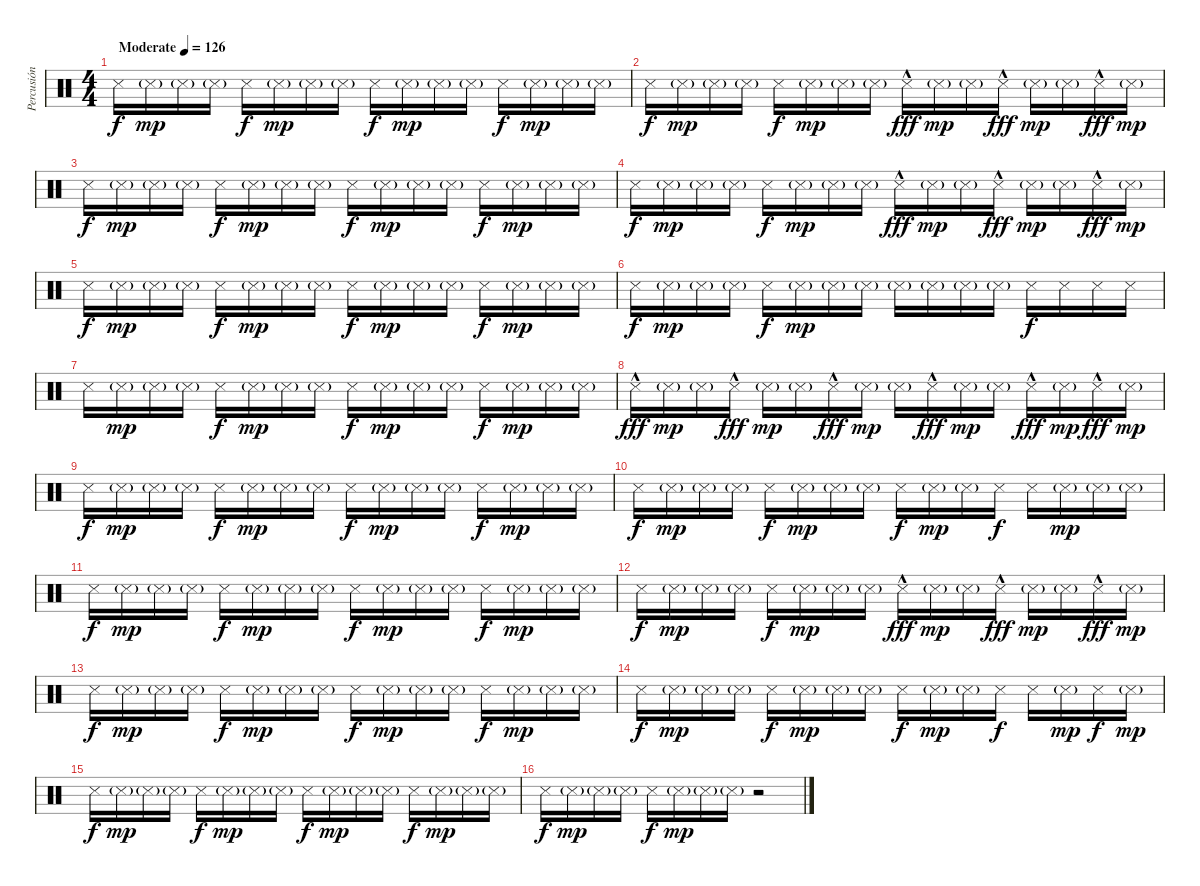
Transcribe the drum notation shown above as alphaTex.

\track ("Percusión" "Percusión") {instrument percussion}
\staff {score}
\articulation defaults
\ts (4 4)
\tempo (126 "Moderate")
\clef neutral
\ks c "Snare (side stick) 3".16{dy f} "Snare (side stick) 3"{g}.16{dy mp} "Snare (side stick) 3"{g}.16 "Snare (side stick) 3"{g}.16 "Snare (side stick) 3".16{dy f} "Snare (side stick) 3"{g}.16{dy mp} "Snare (side stick) 3"{g}.16 "Snare (side stick) 3"{g}.16 "Snare (side stick) 3".16{dy f} "Snare (side stick) 3"{g}.16{dy mp} "Snare (side stick) 3"{g}.16 "Snare (side stick) 3"{g}.16 "Snare (side stick) 3".16{dy f} "Snare (side stick) 3"{g}.16{dy mp} "Snare (side stick) 3"{g}.16 "Snare (side stick) 3"{g}.16
|
"Snare (side stick) 3".16{dy f} "Snare (side stick) 3"{g}.16{dy mp} "Snare (side stick) 3"{g}.16 "Snare (side stick) 3"{g}.16 "Snare (side stick) 3".16{dy f} "Snare (side stick) 3"{g}.16{dy mp} "Snare (side stick) 3"{g}.16 "Snare (side stick) 3"{g}.16 "Snare (side stick) 3"{hac}.16{dy fff} "Snare (side stick) 3"{g}.16{dy mp} "Snare (side stick) 3"{g}.16 "Snare (side stick) 3"{hac}.16{dy fff} "Snare (side stick) 3"{g}.16{dy mp} "Snare (side stick) 3"{g}.16 "Snare (side stick) 3"{hac}.16{dy fff} "Snare (side stick) 3"{g}.16{dy mp} |
"Snare (side stick) 3".16{dy f} "Snare (side stick) 3"{g}.16{dy mp} "Snare (side stick) 3"{g}.16 "Snare (side stick) 3"{g}.16 "Snare (side stick) 3".16{dy f} "Snare (side stick) 3"{g}.16{dy mp} "Snare (side stick) 3"{g}.16 "Snare (side stick) 3"{g}.16 "Snare (side stick) 3".16{dy f} "Snare (side stick) 3"{g}.16{dy mp} "Snare (side stick) 3"{g}.16 "Snare (side stick) 3"{g}.16 "Snare (side stick) 3".16{dy f} "Snare (side stick) 3"{g}.16{dy mp} "Snare (side stick) 3"{g}.16 "Snare (side stick) 3"{g}.16 |
"Snare (side stick) 3".16{dy f} "Snare (side stick) 3"{g}.16{dy mp} "Snare (side stick) 3"{g}.16 "Snare (side stick) 3"{g}.16 "Snare (side stick) 3".16{dy f} "Snare (side stick) 3"{g}.16{dy mp} "Snare (side stick) 3"{g}.16 "Snare (side stick) 3"{g}.16 "Snare (side stick) 3"{hac}.16{dy fff} "Snare (side stick) 3"{g}.16{dy mp} "Snare (side stick) 3"{g}.16 "Snare (side stick) 3"{hac}.16{dy fff} "Snare (side stick) 3"{g}.16{dy mp} "Snare (side stick) 3"{g}.16 "Snare (side stick) 3"{hac}.16{dy fff} "Snare (side stick) 3"{g}.16{dy mp} |
"Snare (side stick) 3".16{dy f} "Snare (side stick) 3"{g}.16{dy mp} "Snare (side stick) 3"{g}.16 "Snare (side stick) 3"{g}.16 "Snare (side stick) 3".16{dy f} "Snare (side stick) 3"{g}.16{dy mp} "Snare (side stick) 3"{g}.16 "Snare (side stick) 3"{g}.16 "Snare (side stick) 3".16{dy f} "Snare (side stick) 3"{g}.16{dy mp} "Snare (side stick) 3"{g}.16 "Snare (side stick) 3"{g}.16 "Snare (side stick) 3".16{dy f} "Snare (side stick) 3"{g}.16{dy mp} "Snare (side stick) 3"{g}.16 "Snare (side stick) 3"{g}.16 |
"Snare (side stick) 3".16{dy f} "Snare (side stick) 3"{g}.16{dy mp} "Snare (side stick) 3"{g}.16 "Snare (side stick) 3"{g}.16 "Snare (side stick) 3".16{dy f} "Snare (side stick) 3"{g}.16{dy mp} "Snare (side stick) 3"{g}.16 "Snare (side stick) 3"{g}.16 "Snare (side stick) 3"{g}.16 "Snare (side stick) 3"{g}.16 "Snare (side stick) 3"{g}.16 "Snare (side stick) 3"{g}.16 "Snare (side stick) 3".16{dy f} "Snare (side stick) 3".16 "Snare (side stick) 3".16 "Snare (side stick) 3".16 |
"Snare (side stick) 3".16 "Snare (side stick) 3"{g}.16{dy mp} "Snare (side stick) 3"{g}.16 "Snare (side stick) 3"{g}.16 "Snare (side stick) 3".16{dy f} "Snare (side stick) 3"{g}.16{dy mp} "Snare (side stick) 3"{g}.16 "Snare (side stick) 3"{g}.16 "Snare (side stick) 3".16{dy f} "Snare (side stick) 3"{g}.16{dy mp} "Snare (side stick) 3"{g}.16 "Snare (side stick) 3"{g}.16 "Snare (side stick) 3".16{dy f} "Snare (side stick) 3"{g}.16{dy mp} "Snare (side stick) 3"{g}.16 "Snare (side stick) 3"{g}.16 |
"Snare (side stick) 3"{hac}.16{dy fff} "Snare (side stick) 3"{g}.16{dy mp} "Snare (side stick) 3"{g}.16 "Snare (side stick) 3"{hac}.16{dy fff} "Snare (side stick) 3"{g}.16{dy mp} "Snare (side stick) 3"{g}.16 "Snare (side stick) 3"{hac}.16{dy fff} "Snare (side stick) 3"{g}.16{dy mp} "Snare (side stick) 3"{g}.16 "Snare (side stick) 3"{hac}.16{dy fff} "Snare (side stick) 3"{g}.16{dy mp} "Snare (side stick) 3"{g}.16 "Snare (side stick) 3"{hac}.16{dy fff} "Snare (side stick) 3"{g}.16{dy mp} "Snare (side stick) 3"{hac}.16{dy fff} "Snare (side stick) 3"{g}.16{dy mp} |
"Snare (side stick) 3".16{dy f} "Snare (side stick) 3"{g}.16{dy mp} "Snare (side stick) 3"{g}.16 "Snare (side stick) 3"{g}.16 "Snare (side stick) 3".16{dy f} "Snare (side stick) 3"{g}.16{dy mp} "Snare (side stick) 3"{g}.16 "Snare (side stick) 3"{g}.16 "Snare (side stick) 3".16{dy f} "Snare (side stick) 3"{g}.16{dy mp} "Snare (side stick) 3"{g}.16 "Snare (side stick) 3"{g}.16 "Snare (side stick) 3".16{dy f} "Snare (side stick) 3"{g}.16{dy mp} "Snare (side stick) 3"{g}.16 "Snare (side stick) 3"{g}.16 |
"Snare (side stick) 3".16{dy f} "Snare (side stick) 3"{g}.16{dy mp} "Snare (side stick) 3"{g}.16 "Snare (side stick) 3"{g}.16 "Snare (side stick) 3".16{dy f} "Snare (side stick) 3"{g}.16{dy mp} "Snare (side stick) 3"{g}.16 "Snare (side stick) 3"{g}.16 "Snare (side stick) 3".16{dy f} "Snare (side stick) 3"{g}.16{dy mp} "Snare (side stick) 3"{g}.16 "Snare (side stick) 3".16{dy f} "Snare (side stick) 3".16 "Snare (side stick) 3"{g}.16{dy mp} "Snare (side stick) 3"{g}.16 "Snare (side stick) 3"{g}.16 |
"Snare (side stick) 3".16{dy f} "Snare (side stick) 3"{g}.16{dy mp} "Snare (side stick) 3"{g}.16 "Snare (side stick) 3"{g}.16 "Snare (side stick) 3".16{dy f} "Snare (side stick) 3"{g}.16{dy mp} "Snare (side stick) 3"{g}.16 "Snare (side stick) 3"{g}.16 "Snare (side stick) 3".16{dy f} "Snare (side stick) 3"{g}.16{dy mp} "Snare (side stick) 3"{g}.16 "Snare (side stick) 3"{g}.16 "Snare (side stick) 3".16{dy f} "Snare (side stick) 3"{g}.16{dy mp} "Snare (side stick) 3"{g}.16 "Snare (side stick) 3"{g}.16 |
"Snare (side stick) 3".16{dy f} "Snare (side stick) 3"{g}.16{dy mp} "Snare (side stick) 3"{g}.16 "Snare (side stick) 3"{g}.16 "Snare (side stick) 3".16{dy f} "Snare (side stick) 3"{g}.16{dy mp} "Snare (side stick) 3"{g}.16 "Snare (side stick) 3"{g}.16 "Snare (side stick) 3"{hac}.16{dy fff} "Snare (side stick) 3"{g}.16{dy mp} "Snare (side stick) 3"{g}.16 "Snare (side stick) 3"{hac}.16{dy fff} "Snare (side stick) 3"{g}.16{dy mp} "Snare (side stick) 3"{g}.16 "Snare (side stick) 3"{hac}.16{dy fff} "Snare (side stick) 3"{g}.16{dy mp} |
"Snare (side stick) 3".16{dy f} "Snare (side stick) 3"{g}.16{dy mp} "Snare (side stick) 3"{g}.16 "Snare (side stick) 3"{g}.16 "Snare (side stick) 3".16{dy f} "Snare (side stick) 3"{g}.16{dy mp} "Snare (side stick) 3"{g}.16 "Snare (side stick) 3"{g}.16 "Snare (side stick) 3".16{dy f} "Snare (side stick) 3"{g}.16{dy mp} "Snare (side stick) 3"{g}.16 "Snare (side stick) 3"{g}.16 "Snare (side stick) 3".16{dy f} "Snare (side stick) 3"{g}.16{dy mp} "Snare (side stick) 3"{g}.16 "Snare (side stick) 3"{g}.16 |
"Snare (side stick) 3".16{dy f} "Snare (side stick) 3"{g}.16{dy mp} "Snare (side stick) 3"{g}.16 "Snare (side stick) 3"{g}.16 "Snare (side stick) 3".16{dy f} "Snare (side stick) 3"{g}.16{dy mp} "Snare (side stick) 3"{g}.16 "Snare (side stick) 3"{g}.16 "Snare (side stick) 3".16{dy f} "Snare (side stick) 3"{g}.16{dy mp} "Snare (side stick) 3"{g}.16 "Snare (side stick) 3".16{dy f} "Snare (side stick) 3".16 "Snare (side stick) 3"{g}.16{dy mp} "Snare (side stick) 3".16{dy f} "Snare (side stick) 3"{g}.16{dy mp} |
"Snare (side stick) 3".16{dy f} "Snare (side stick) 3"{g}.16{dy mp} "Snare (side stick) 3"{g}.16 "Snare (side stick) 3"{g}.16 "Snare (side stick) 3".16{dy f} "Snare (side stick) 3"{g}.16{dy mp} "Snare (side stick) 3"{g}.16 "Snare (side stick) 3"{g}.16 "Snare (side stick) 3".16{dy f} "Snare (side stick) 3"{g}.16{dy mp} "Snare (side stick) 3"{g}.16 "Snare (side stick) 3"{g}.16 "Snare (side stick) 3".16{dy f} "Snare (side stick) 3"{g}.16{dy mp} "Snare (side stick) 3"{g}.16 "Snare (side stick) 3"{g}.16 |
"Snare (side stick) 3".16{dy f} "Snare (side stick) 3"{g}.16{dy mp} "Snare (side stick) 3"{g}.16 "Snare (side stick) 3"{g}.16 "Snare (side stick) 3".16{dy f} "Snare (side stick) 3"{g}.16{dy mp} "Snare (side stick) 3"{g}.16 "Snare (side stick) 3"{g}.16 r.2
